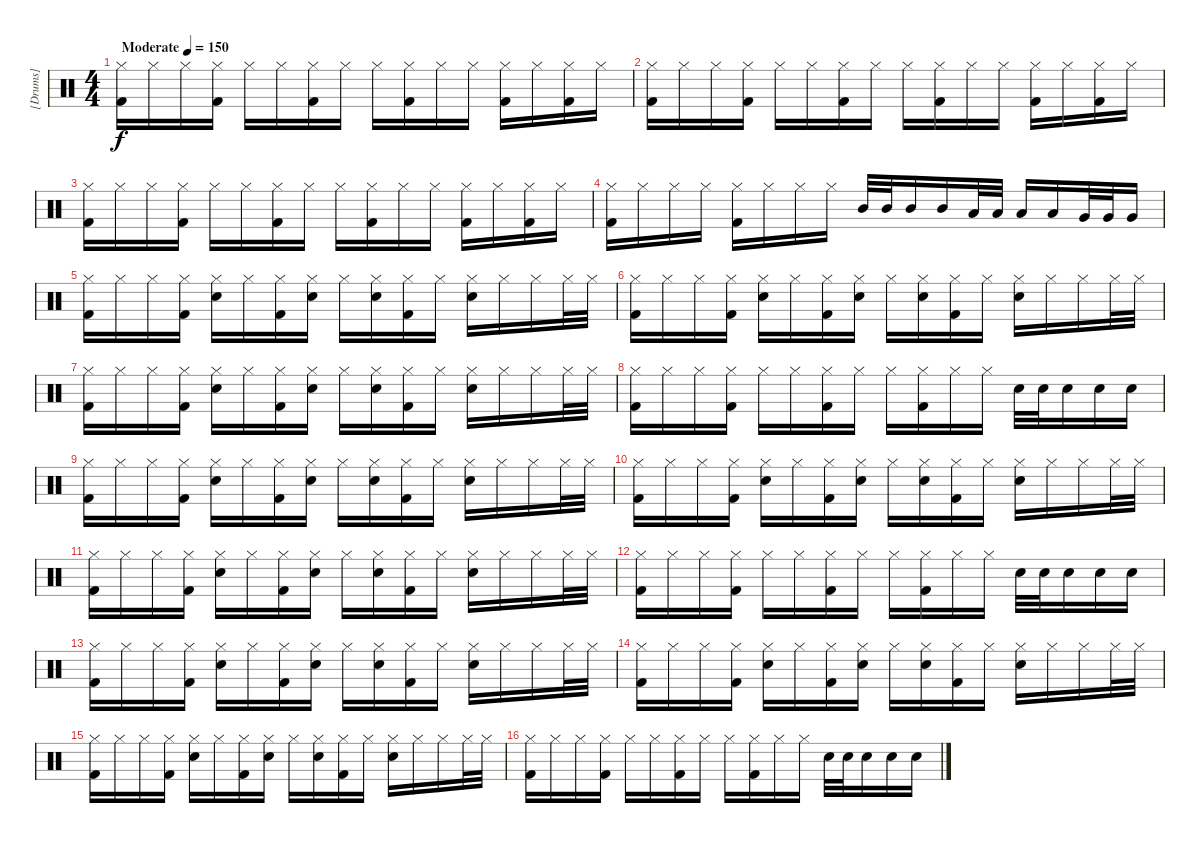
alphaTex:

\track ("[Drums]" "[Drums]") {instrument percussion}
\staff {score}
\articulation defaults
\ts (4 4)
\tempo (150 "Moderate")
\clef neutral
\ks c
("Hi-Hat (closed)" "Kick (hit) 2").16{dy f} "Hi-Hat (closed)".16 "Hi-Hat (closed)".16 ("Hi-Hat (closed)" "Kick (hit) 2").16 "Hi-Hat (closed)".16 "Hi-Hat (closed)".16 ("Hi-Hat (closed)" "Kick (hit) 2").16 "Hi-Hat (closed)".16 "Hi-Hat (closed)".16 ("Hi-Hat (closed)" "Kick (hit) 2").16 "Hi-Hat (closed)".16 "Hi-Hat (closed)".16 ("Hi-Hat (closed)" "Kick (hit) 2").16 "Hi-Hat (closed)".16 ("Hi-Hat (closed)" "Kick (hit) 2").16 "Hi-Hat (closed)".16 |
("Hi-Hat (closed)" "Kick (hit) 2").16 "Hi-Hat (closed)".16 "Hi-Hat (closed)".16 ("Hi-Hat (closed)" "Kick (hit) 2").16 "Hi-Hat (closed)".16 "Hi-Hat (closed)".16 ("Hi-Hat (closed)" "Kick (hit) 2").16 "Hi-Hat (closed)".16 "Hi-Hat (closed)".16 ("Hi-Hat (closed)" "Kick (hit) 2").16 "Hi-Hat (closed)".16 "Hi-Hat (closed)".16 ("Hi-Hat (closed)" "Kick (hit) 2").16 "Hi-Hat (closed)".16 ("Hi-Hat (closed)" "Kick (hit) 2").16 "Hi-Hat (closed)".16 |
("Hi-Hat (closed)" "Kick (hit) 2").16 "Hi-Hat (closed)".16 "Hi-Hat (closed)".16 ("Hi-Hat (closed)" "Kick (hit) 2").16 "Hi-Hat (closed)".16 "Hi-Hat (closed)".16 ("Hi-Hat (closed)" "Kick (hit) 2").16 "Hi-Hat (closed)".16 "Hi-Hat (closed)".16 ("Hi-Hat (closed)" "Kick (hit) 2").16 "Hi-Hat (closed)".16 "Hi-Hat (closed)".16 ("Hi-Hat (closed)" "Kick (hit) 2").16 "Hi-Hat (closed)".16 ("Hi-Hat (closed)" "Kick (hit) 2").16 "Hi-Hat (closed)".16 |
("Hi-Hat (closed)" "Kick (hit) 2").16 "Hi-Hat (closed)".16 "Hi-Hat (closed)".16 "Hi-Hat (closed)".16 ("Hi-Hat (closed)" "Kick (hit) 2").16 "Hi-Hat (closed)".16 "Hi-Hat (closed)".16 "Hi-Hat (closed)".16 "Mid Tom (hit)".32 "Mid Tom (hit)".32 "Mid Tom (hit)".16 "Mid Tom (hit)".16 "Low Tom (hit)".32 "Low Tom (hit)".32 "Low Tom (hit)".16 "Low Tom (hit)".16 "Very Low Tom (hit)".32 "Very Low Tom (hit)".32 "Very Low Tom (hit)".16 |
("Hi-Hat (closed)" "Kick (hit) 2").16 "Hi-Hat (closed)".16 "Hi-Hat (closed)".16 ("Hi-Hat (closed)" "Kick (hit) 2").16 ("Hi-Hat (closed)" "Snare (hit) 2").16 "Hi-Hat (closed)".16 ("Hi-Hat (closed)" "Kick (hit) 2").16 ("Hi-Hat (closed)" "Snare (hit) 2").16 "Hi-Hat (closed)".16 ("Hi-Hat (closed)" "Snare (hit) 2").16 ("Hi-Hat (closed)" "Kick (hit) 2").16 "Hi-Hat (closed)".16 ("Hi-Hat (closed)" "Snare (hit) 2").16 "Hi-Hat (closed)".16 "Hi-Hat (closed)".16 "Hi-Hat (closed)".32 "Hi-Hat (closed)".32 |
("Hi-Hat (closed)" "Kick (hit) 2").16 "Hi-Hat (closed)".16 "Hi-Hat (closed)".16 ("Hi-Hat (closed)" "Kick (hit) 2").16 ("Hi-Hat (closed)" "Snare (hit) 2").16 "Hi-Hat (closed)".16 ("Hi-Hat (closed)" "Kick (hit) 2").16 ("Hi-Hat (closed)" "Snare (hit) 2").16 "Hi-Hat (closed)".16 ("Hi-Hat (closed)" "Snare (hit) 2").16 ("Hi-Hat (closed)" "Kick (hit) 2").16 "Hi-Hat (closed)".16 ("Hi-Hat (closed)" "Snare (hit) 2").16 "Hi-Hat (closed)".16 "Hi-Hat (closed)".16 "Hi-Hat (closed)".32 "Hi-Hat (closed)".32 |
("Hi-Hat (closed)" "Kick (hit) 2").16 "Hi-Hat (closed)".16 "Hi-Hat (closed)".16 ("Hi-Hat (closed)" "Kick (hit) 2").16 ("Hi-Hat (closed)" "Snare (hit) 2").16 "Hi-Hat (closed)".16 ("Hi-Hat (closed)" "Kick (hit) 2").16 ("Hi-Hat (closed)" "Snare (hit) 2").16 "Hi-Hat (closed)".16 ("Hi-Hat (closed)" "Snare (hit) 2").16 ("Hi-Hat (closed)" "Kick (hit) 2").16 "Hi-Hat (closed)".16 ("Hi-Hat (closed)" "Snare (hit) 2").16 "Hi-Hat (closed)".16 "Hi-Hat (closed)".16 "Hi-Hat (closed)".32 "Hi-Hat (closed)".32 |
("Hi-Hat (closed)" "Kick (hit) 2").16 "Hi-Hat (closed)".16 "Hi-Hat (closed)".16 ("Hi-Hat (closed)" "Kick (hit) 2").16 "Hi-Hat (closed)".16 "Hi-Hat (closed)".16 ("Hi-Hat (closed)" "Kick (hit) 2").16 "Hi-Hat (closed)".16 "Hi-Hat (closed)".16 ("Hi-Hat (closed)" "Kick (hit) 2").16 "Hi-Hat (closed)".16 "Hi-Hat (closed)".16 "Electric Snare (hit)".32 "Electric Snare (hit)".32 "Electric Snare (hit)".16 "Electric Snare (hit)".16 "Electric Snare (hit)".16 |
("Hi-Hat (closed)" "Kick (hit) 2").16 "Hi-Hat (closed)".16 "Hi-Hat (closed)".16 ("Hi-Hat (closed)" "Kick (hit) 2").16 ("Hi-Hat (closed)" "Snare (hit) 2").16 "Hi-Hat (closed)".16 ("Hi-Hat (closed)" "Kick (hit) 2").16 ("Hi-Hat (closed)" "Snare (hit) 2").16 "Hi-Hat (closed)".16 ("Hi-Hat (closed)" "Snare (hit) 2").16 ("Hi-Hat (closed)" "Kick (hit) 2").16 "Hi-Hat (closed)".16 ("Hi-Hat (closed)" "Snare (hit) 2").16 "Hi-Hat (closed)".16 "Hi-Hat (closed)".16 "Hi-Hat (closed)".32 "Hi-Hat (closed)".32 |
("Hi-Hat (closed)" "Kick (hit) 2").16 "Hi-Hat (closed)".16 "Hi-Hat (closed)".16 ("Hi-Hat (closed)" "Kick (hit) 2").16 ("Hi-Hat (closed)" "Snare (hit) 2").16 "Hi-Hat (closed)".16 ("Hi-Hat (closed)" "Kick (hit) 2").16 ("Hi-Hat (closed)" "Snare (hit) 2").16 "Hi-Hat (closed)".16 ("Hi-Hat (closed)" "Snare (hit) 2").16 ("Hi-Hat (closed)" "Kick (hit) 2").16 "Hi-Hat (closed)".16 ("Hi-Hat (closed)" "Snare (hit) 2").16 "Hi-Hat (closed)".16 "Hi-Hat (closed)".16 "Hi-Hat (closed)".32 "Hi-Hat (closed)".32 |
("Hi-Hat (closed)" "Kick (hit) 2").16 "Hi-Hat (closed)".16 "Hi-Hat (closed)".16 ("Hi-Hat (closed)" "Kick (hit) 2").16 ("Hi-Hat (closed)" "Snare (hit) 2").16 "Hi-Hat (closed)".16 ("Hi-Hat (closed)" "Kick (hit) 2").16 ("Hi-Hat (closed)" "Snare (hit) 2").16 "Hi-Hat (closed)".16 ("Hi-Hat (closed)" "Snare (hit) 2").16 ("Hi-Hat (closed)" "Kick (hit) 2").16 "Hi-Hat (closed)".16 ("Hi-Hat (closed)" "Snare (hit) 2").16 "Hi-Hat (closed)".16 "Hi-Hat (closed)".16 "Hi-Hat (closed)".32 "Hi-Hat (closed)".32 |
("Hi-Hat (closed)" "Kick (hit) 2").16 "Hi-Hat (closed)".16 "Hi-Hat (closed)".16 ("Hi-Hat (closed)" "Kick (hit) 2").16 "Hi-Hat (closed)".16 "Hi-Hat (closed)".16 ("Hi-Hat (closed)" "Kick (hit) 2").16 "Hi-Hat (closed)".16 "Hi-Hat (closed)".16 ("Hi-Hat (closed)" "Kick (hit) 2").16 "Hi-Hat (closed)".16 "Hi-Hat (closed)".16 "Electric Snare (hit)".32 "Electric Snare (hit)".32 "Electric Snare (hit)".16 "Electric Snare (hit)".16 "Electric Snare (hit)".16 |
("Hi-Hat (closed)" "Kick (hit) 2").16 "Hi-Hat (closed)".16 "Hi-Hat (closed)".16 ("Hi-Hat (closed)" "Kick (hit) 2").16 ("Hi-Hat (closed)" "Snare (hit) 2").16 "Hi-Hat (closed)".16 ("Hi-Hat (closed)" "Kick (hit) 2").16 ("Hi-Hat (closed)" "Snare (hit) 2").16 "Hi-Hat (closed)".16 ("Hi-Hat (closed)" "Snare (hit) 2").16 ("Hi-Hat (closed)" "Kick (hit) 2").16 "Hi-Hat (closed)".16 ("Hi-Hat (closed)" "Snare (hit) 2").16 "Hi-Hat (closed)".16 "Hi-Hat (closed)".16 "Hi-Hat (closed)".32 "Hi-Hat (closed)".32 |
("Hi-Hat (closed)" "Kick (hit) 2").16 "Hi-Hat (closed)".16 "Hi-Hat (closed)".16 ("Hi-Hat (closed)" "Kick (hit) 2").16 ("Hi-Hat (closed)" "Snare (hit) 2").16 "Hi-Hat (closed)".16 ("Hi-Hat (closed)" "Kick (hit) 2").16 ("Hi-Hat (closed)" "Snare (hit) 2").16 "Hi-Hat (closed)".16 ("Hi-Hat (closed)" "Snare (hit) 2").16 ("Hi-Hat (closed)" "Kick (hit) 2").16 "Hi-Hat (closed)".16 ("Hi-Hat (closed)" "Snare (hit) 2").16 "Hi-Hat (closed)".16 "Hi-Hat (closed)".16 "Hi-Hat (closed)".32 "Hi-Hat (closed)".32 |
("Hi-Hat (closed)" "Kick (hit) 2").16 "Hi-Hat (closed)".16 "Hi-Hat (closed)".16 ("Hi-Hat (closed)" "Kick (hit) 2").16 ("Hi-Hat (closed)" "Snare (hit) 2").16 "Hi-Hat (closed)".16 ("Hi-Hat (closed)" "Kick (hit) 2").16 ("Hi-Hat (closed)" "Snare (hit) 2").16 "Hi-Hat (closed)".16 ("Hi-Hat (closed)" "Snare (hit) 2").16 ("Hi-Hat (closed)" "Kick (hit) 2").16 "Hi-Hat (closed)".16 ("Hi-Hat (closed)" "Snare (hit) 2").16 "Hi-Hat (closed)".16 "Hi-Hat (closed)".16 "Hi-Hat (closed)".32 "Hi-Hat (closed)".32 |
("Hi-Hat (closed)" "Kick (hit) 2").16 "Hi-Hat (closed)".16 "Hi-Hat (closed)".16 ("Hi-Hat (closed)" "Kick (hit) 2").16 "Hi-Hat (closed)".16 "Hi-Hat (closed)".16 ("Hi-Hat (closed)" "Kick (hit) 2").16 "Hi-Hat (closed)".16 "Hi-Hat (closed)".16 ("Hi-Hat (closed)" "Kick (hit) 2").16 "Hi-Hat (closed)".16 "Hi-Hat (closed)".16 "Electric Snare (hit)".32 "Electric Snare (hit)".32 "Electric Snare (hit)".16 "Electric Snare (hit)".16 "Electric Snare (hit)".16
